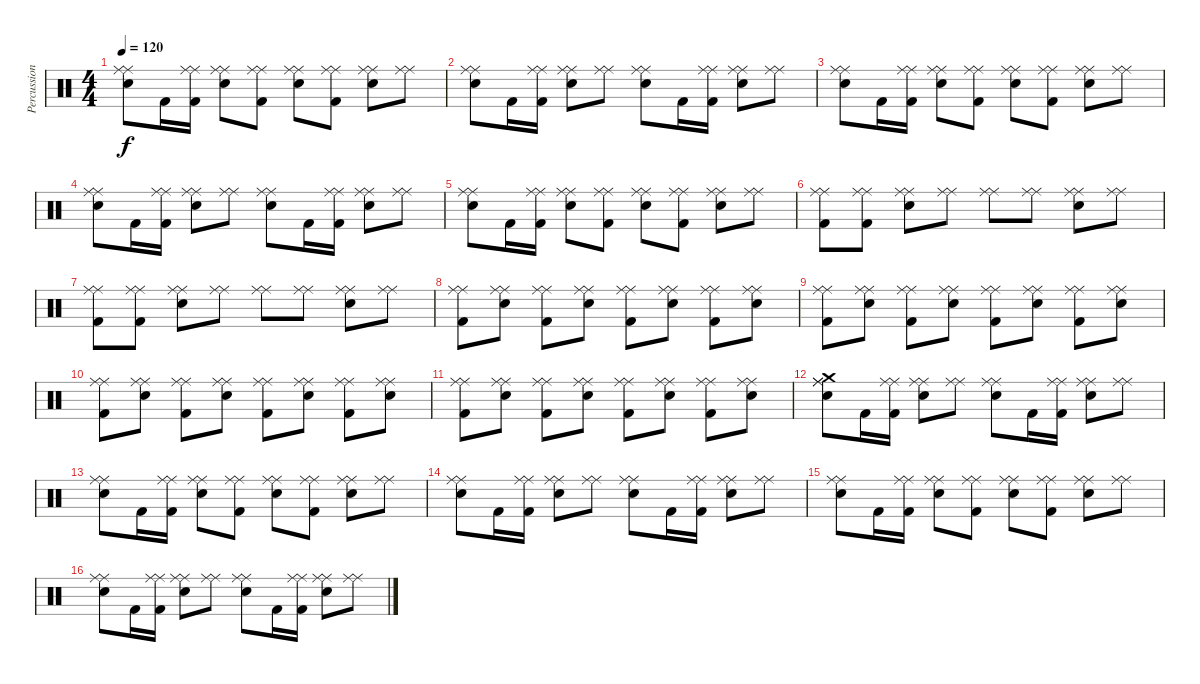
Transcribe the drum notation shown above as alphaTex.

\track ("Percussions" "Percussion") {instrument percussion}
\staff {score}
\articulation defaults
\ts (4 4)
\tempo 120
\clef neutral
\ks c
("Ride (middle)" "Ride (middle)" "Electric Snare (hit)").8{dy f} "Kick (hit) 2".16 ("Ride (middle)" "Ride (middle)" "Kick (hit) 2").16 ("Ride (middle)" "Ride (middle)" "Electric Snare (hit)").8 ("Ride (middle)" "Ride (middle)" "Kick (hit) 2").8 ("Ride (middle)" "Ride (middle)" "Electric Snare (hit)").8 ("Ride (middle)" "Ride (middle)" "Kick (hit) 2").8 ("Ride (middle)" "Ride (middle)" "Electric Snare (hit)").8 ("Ride (middle)" "Ride (middle)").8 |
("Ride (middle)" "Ride (middle)" "Electric Snare (hit)").8 "Kick (hit) 2".16 ("Ride (middle)" "Ride (middle)" "Kick (hit) 2").16 ("Ride (middle)" "Ride (middle)" "Electric Snare (hit)").8 ("Ride (middle)" "Ride (middle)").8 ("Ride (middle)" "Ride (middle)" "Electric Snare (hit)").8 "Kick (hit) 2".16 ("Ride (middle)" "Ride (middle)" "Kick (hit) 2").16 ("Ride (middle)" "Ride (middle)" "Electric Snare (hit)").8 ("Ride (middle)" "Ride (middle)").8 |
("Ride (middle)" "Ride (middle)" "Electric Snare (hit)").8 "Kick (hit) 2".16 ("Ride (middle)" "Ride (middle)" "Kick (hit) 2").16 ("Ride (middle)" "Ride (middle)" "Electric Snare (hit)").8 ("Ride (middle)" "Ride (middle)" "Kick (hit) 2").8 ("Ride (middle)" "Ride (middle)" "Electric Snare (hit)").8 ("Ride (middle)" "Ride (middle)" "Kick (hit) 2").8 ("Ride (middle)" "Ride (middle)" "Electric Snare (hit)").8 ("Ride (middle)" "Ride (middle)").8 |
("Ride (middle)" "Ride (middle)" "Electric Snare (hit)").8 "Kick (hit) 2".16 ("Ride (middle)" "Ride (middle)" "Kick (hit) 2").16 ("Ride (middle)" "Ride (middle)" "Electric Snare (hit)").8 ("Ride (middle)" "Ride (middle)").8 ("Ride (middle)" "Ride (middle)" "Electric Snare (hit)").8 "Kick (hit) 2".16 ("Ride (middle)" "Ride (middle)" "Kick (hit) 2").16 ("Ride (middle)" "Ride (middle)" "Electric Snare (hit)").8 ("Ride (middle)" "Ride (middle)").8 |
("Ride (middle)" "Ride (middle)" "Electric Snare (hit)").8 "Kick (hit) 2".16 ("Ride (middle)" "Ride (middle)" "Kick (hit) 2").16 ("Ride (middle)" "Ride (middle)" "Electric Snare (hit)").8 ("Ride (middle)" "Ride (middle)" "Kick (hit) 2").8 ("Ride (middle)" "Ride (middle)" "Electric Snare (hit)").8 ("Ride (middle)" "Ride (middle)" "Kick (hit) 2").8 ("Ride (middle)" "Ride (middle)" "Electric Snare (hit)").8 ("Ride (middle)" "Ride (middle)").8 |
("Ride (middle)" "Ride (middle)" "Kick (hit) 2").8 ("Ride (middle)" "Ride (middle)" "Kick (hit) 2").8 ("Ride (middle)" "Ride (middle)" "Electric Snare (hit)").8 ("Ride (middle)" "Ride (middle)").8 ("Ride (middle)" "Ride (middle)").8 ("Ride (middle)" "Ride (middle)").8 ("Ride (middle)" "Ride (middle)" "Electric Snare (hit)").8 ("Ride (middle)" "Ride (middle)").8 |
("Ride (middle)" "Ride (middle)" "Kick (hit) 2").8 ("Ride (middle)" "Ride (middle)" "Kick (hit) 2").8 ("Ride (middle)" "Ride (middle)" "Electric Snare (hit)").8 ("Ride (middle)" "Ride (middle)").8 ("Ride (middle)" "Ride (middle)").8 ("Ride (middle)" "Ride (middle)").8 ("Ride (middle)" "Ride (middle)" "Electric Snare (hit)").8 ("Ride (middle)" "Ride (middle)").8 |
("Ride (middle)" "Ride (middle)" "Kick (hit) 2").8 ("Ride (middle)" "Ride (middle)" "Electric Snare (hit)").8 ("Ride (middle)" "Ride (middle)" "Kick (hit) 2").8 ("Ride (middle)" "Ride (middle)" "Electric Snare (hit)").8 ("Ride (middle)" "Ride (middle)" "Kick (hit) 2").8 ("Ride (middle)" "Ride (middle)" "Electric Snare (hit)").8 ("Ride (middle)" "Ride (middle)" "Kick (hit) 2").8 ("Ride (middle)" "Ride (middle)" "Electric Snare (hit)").8 |
("Ride (middle)" "Ride (middle)" "Kick (hit) 2").8 ("Ride (middle)" "Ride (middle)" "Electric Snare (hit)").8 ("Ride (middle)" "Ride (middle)" "Kick (hit) 2").8 ("Ride (middle)" "Ride (middle)" "Electric Snare (hit)").8 ("Ride (middle)" "Ride (middle)" "Kick (hit) 2").8 ("Ride (middle)" "Ride (middle)" "Electric Snare (hit)").8 ("Ride (middle)" "Ride (middle)" "Kick (hit) 2").8 ("Ride (middle)" "Ride (middle)" "Electric Snare (hit)").8 |
("Ride (middle)" "Ride (middle)" "Kick (hit) 2").8 ("Ride (middle)" "Ride (middle)" "Electric Snare (hit)").8 ("Ride (middle)" "Ride (middle)" "Kick (hit) 2").8 ("Ride (middle)" "Ride (middle)" "Electric Snare (hit)").8 ("Ride (middle)" "Ride (middle)" "Kick (hit) 2").8 ("Ride (middle)" "Ride (middle)" "Electric Snare (hit)").8 ("Ride (middle)" "Ride (middle)" "Kick (hit) 2").8 ("Ride (middle)" "Ride (middle)" "Electric Snare (hit)").8 |
("Ride (middle)" "Ride (middle)" "Kick (hit) 2").8 ("Ride (middle)" "Ride (middle)" "Electric Snare (hit)").8 ("Ride (middle)" "Ride (middle)" "Kick (hit) 2").8 ("Ride (middle)" "Ride (middle)" "Electric Snare (hit)").8 ("Ride (middle)" "Ride (middle)" "Kick (hit) 2").8 ("Ride (middle)" "Ride (middle)" "Electric Snare (hit)").8 ("Ride (middle)" "Ride (middle)" "Kick (hit) 2").8 ("Ride (middle)" "Ride (middle)" "Electric Snare (hit)").8 |
("Ride (middle)" "Ride (middle)" "Electric Snare (hit)" "Crash medium (hit)").8 "Kick (hit) 2".16 ("Ride (middle)" "Ride (middle)" "Kick (hit) 2").16 ("Ride (middle)" "Ride (middle)" "Electric Snare (hit)").8 ("Ride (middle)" "Ride (middle)").8 ("Ride (middle)" "Ride (middle)" "Electric Snare (hit)").8 "Kick (hit) 2".16 ("Ride (middle)" "Ride (middle)" "Kick (hit) 2").16 ("Ride (middle)" "Ride (middle)" "Electric Snare (hit)").8 ("Ride (middle)" "Ride (middle)").8 |
("Ride (middle)" "Ride (middle)" "Electric Snare (hit)").8 "Kick (hit) 2".16 ("Ride (middle)" "Ride (middle)" "Kick (hit) 2").16 ("Ride (middle)" "Ride (middle)" "Electric Snare (hit)").8 ("Ride (middle)" "Ride (middle)" "Kick (hit) 2").8 ("Ride (middle)" "Ride (middle)" "Electric Snare (hit)").8 ("Ride (middle)" "Ride (middle)" "Kick (hit) 2").8 ("Ride (middle)" "Ride (middle)" "Electric Snare (hit)").8 ("Ride (middle)" "Ride (middle)").8 |
("Ride (middle)" "Ride (middle)" "Electric Snare (hit)").8 "Kick (hit) 2".16 ("Ride (middle)" "Ride (middle)" "Kick (hit) 2").16 ("Ride (middle)" "Ride (middle)" "Electric Snare (hit)").8 ("Ride (middle)" "Ride (middle)").8 ("Ride (middle)" "Ride (middle)" "Electric Snare (hit)").8 "Kick (hit) 2".16 ("Ride (middle)" "Ride (middle)" "Kick (hit) 2").16 ("Ride (middle)" "Ride (middle)" "Electric Snare (hit)").8 ("Ride (middle)" "Ride (middle)").8 |
("Ride (middle)" "Ride (middle)" "Electric Snare (hit)").8 "Kick (hit) 2".16 ("Ride (middle)" "Ride (middle)" "Kick (hit) 2").16 ("Ride (middle)" "Ride (middle)" "Electric Snare (hit)").8 ("Ride (middle)" "Ride (middle)" "Kick (hit) 2").8 ("Ride (middle)" "Ride (middle)" "Electric Snare (hit)").8 ("Ride (middle)" "Ride (middle)" "Kick (hit) 2").8 ("Ride (middle)" "Ride (middle)" "Electric Snare (hit)").8 ("Ride (middle)" "Ride (middle)").8 |
("Ride (middle)" "Ride (middle)" "Electric Snare (hit)").8 "Kick (hit) 2".16 ("Ride (middle)" "Ride (middle)" "Kick (hit) 2").16 ("Ride (middle)" "Ride (middle)" "Electric Snare (hit)").8 ("Ride (middle)" "Ride (middle)").8 ("Ride (middle)" "Ride (middle)" "Electric Snare (hit)").8 "Kick (hit) 2".16 ("Ride (middle)" "Ride (middle)" "Kick (hit) 2").16 ("Ride (middle)" "Ride (middle)" "Electric Snare (hit)").8 ("Ride (middle)" "Ride (middle)").8
